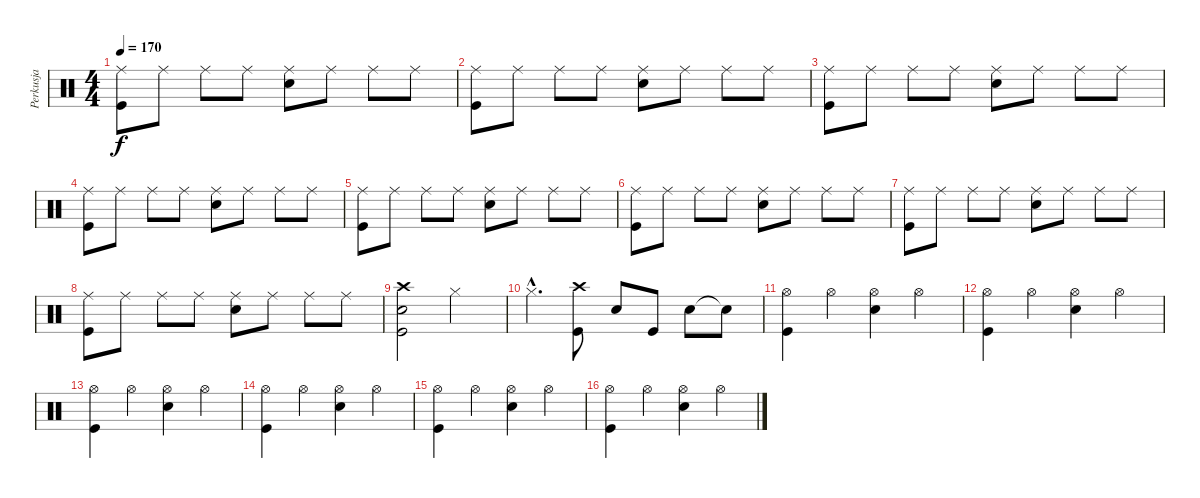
\track ("Perkusja" "Perkusja") {instrument percussion}
\staff {score}
\articulation defaults
\ts (4 4)
\tempo 170
\clef neutral
\ks c
("Ride (middle)" "Kick (hit)").8{dy f} "Ride (middle)".8 "Ride (middle)".8 "Ride (middle)".8 ("Ride (middle)" "Electric Snare (hit)").8 "Ride (middle)".8 "Ride (middle)".8 "Ride (middle)".8 |
("Ride (middle)" "Kick (hit)").8 "Ride (middle)".8 "Ride (middle)".8 "Ride (middle)".8 ("Ride (middle)" "Electric Snare (hit)").8 "Ride (middle)".8 "Ride (middle)".8 "Ride (middle)".8 |
("Ride (middle)" "Kick (hit)").8 "Ride (middle)".8 "Ride (middle)".8 "Ride (middle)".8 ("Ride (middle)" "Electric Snare (hit)").8 "Ride (middle)".8 "Ride (middle)".8 "Ride (middle)".8 |
("Ride (middle)" "Kick (hit)").8 "Ride (middle)".8 "Ride (middle)".8 "Ride (middle)".8 ("Ride (middle)" "Electric Snare (hit)").8 "Ride (middle)".8 "Ride (middle)".8 "Ride (middle)".8 |
("Ride (middle)" "Kick (hit)").8 "Ride (middle)".8 "Ride (middle)".8 "Ride (middle)".8 ("Ride (middle)" "Electric Snare (hit)").8 "Ride (middle)".8 "Ride (middle)".8 "Ride (middle)".8 |
("Ride (middle)" "Kick (hit)").8 "Ride (middle)".8 "Ride (middle)".8 "Ride (middle)".8 ("Ride (middle)" "Electric Snare (hit)").8 "Ride (middle)".8 "Ride (middle)".8 "Ride (middle)".8 |
("Ride (middle)" "Kick (hit)").8 "Ride (middle)".8 "Ride (middle)".8 "Ride (middle)".8 ("Ride (middle)" "Electric Snare (hit)").8 "Ride (middle)".8 "Ride (middle)".8 "Ride (middle)".8 |
("Ride (middle)" "Kick (hit)").8 "Ride (middle)".8 "Ride (middle)".8 "Ride (middle)".8 ("Ride (middle)" "Electric Snare (hit)").8 "Ride (middle)".8 "Ride (middle)".8 "Ride (middle)".8 |
("Crash high (hit)" "Electric Snare (hit)" "Kick (hit)").2 "Hi-Hat (closed)".2 |
"Hi-Hat (closed)"{hac}.4{d} ("Crash high (hit)" "Kick (hit)").8 "Electric Snare (hit)".8 "Kick (hit)".8 "Electric Snare (hit)".8 "Snare (hit)"{t}.8 |
("Hi-Hat (open)" "Kick (hit)").4 "Hi-Hat (open)".4 ("Hi-Hat (open)" "Electric Snare (hit)").4 "Hi-Hat (open)".4 |
("Hi-Hat (open)" "Kick (hit)").4 "Hi-Hat (open)".4 ("Hi-Hat (open)" "Electric Snare (hit)").4 "Hi-Hat (open)".4 |
("Hi-Hat (open)" "Kick (hit)").4 "Hi-Hat (open)".4 ("Hi-Hat (open)" "Electric Snare (hit)").4 "Hi-Hat (open)".4 |
("Hi-Hat (open)" "Kick (hit)").4 "Hi-Hat (open)".4 ("Hi-Hat (open)" "Electric Snare (hit)").4 "Hi-Hat (open)".4 |
("Hi-Hat (open)" "Kick (hit)").4 "Hi-Hat (open)".4 ("Hi-Hat (open)" "Electric Snare (hit)").4 "Hi-Hat (open)".4 |
("Hi-Hat (open)" "Kick (hit)").4 "Hi-Hat (open)".4 ("Hi-Hat (open)" "Electric Snare (hit)").4 "Hi-Hat (open)".4
